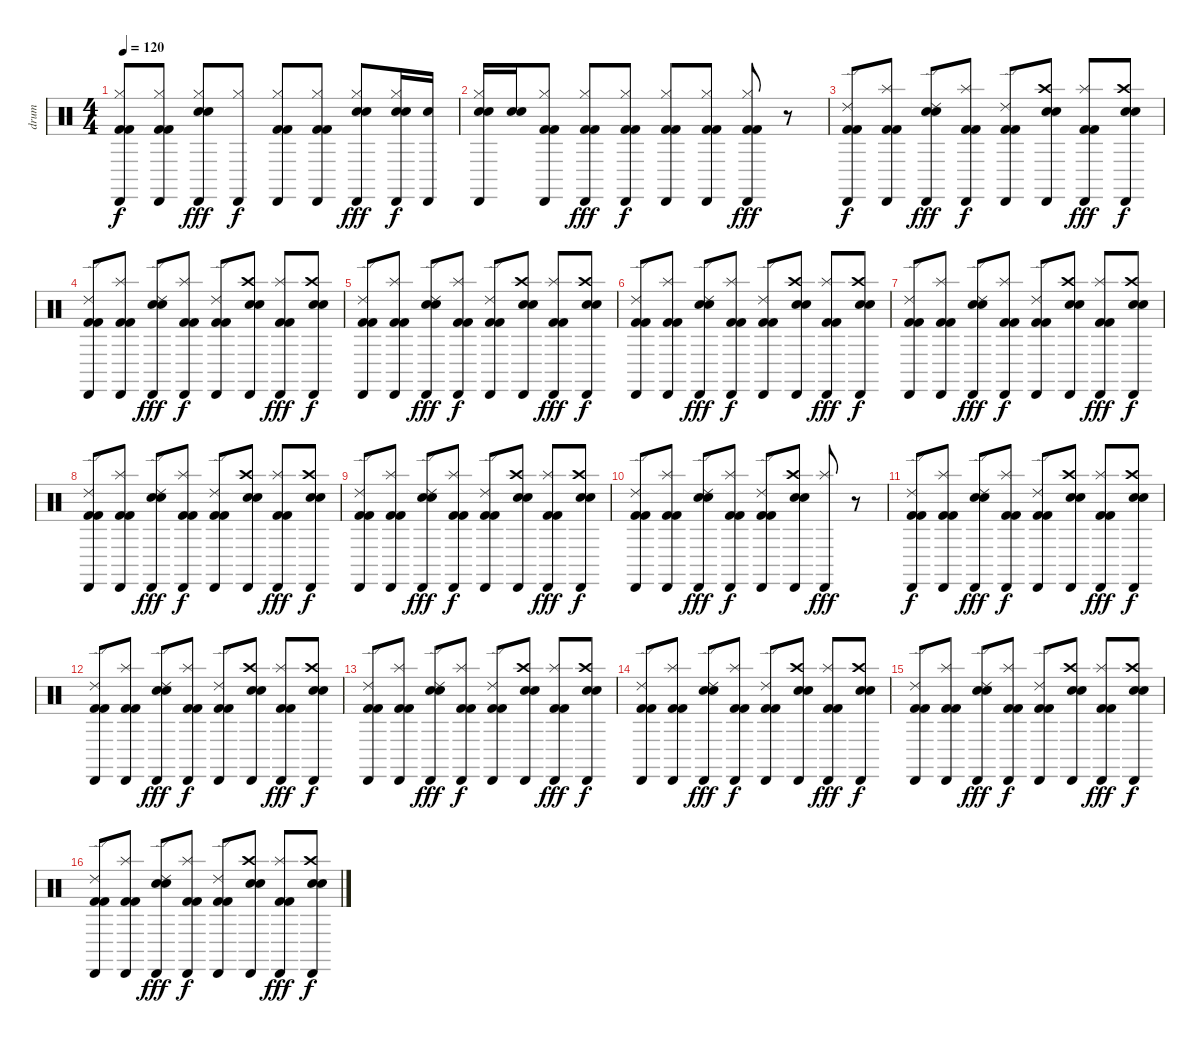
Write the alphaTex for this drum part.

\track ("drum" "drum") {instrument percussion}
\staff {score}
\articulation defaults
\ts (4 4)
\tempo 120
\clef neutral
\ks c
("Cabasa (hit)" "Hi-Hat (closed)" "Kick (hit) 2" "Kick (hit) 2").8{dy f} ("Cabasa (hit)" "Hi-Hat (closed)" "Kick (hit) 2" "Kick (hit) 2").8 ("Cabasa (hit)" "Hi-Hat (closed)" "Snare (hit) 2" "Snare (hit) 2").8{dy fff} ("Cabasa (hit)" "Hi-Hat (closed)").8{dy f} ("Cabasa (hit)" "Hi-Hat (closed)" "Kick (hit) 2" "Kick (hit) 2").8 ("Cabasa (hit)" "Hi-Hat (closed)" "Kick (hit) 2" "Kick (hit) 2").8 ("Cabasa (hit)" "Hi-Hat (closed)" "Snare (hit) 2" "Snare (hit) 2").8{dy fff} ("Cabasa (hit)" "Hi-Hat (closed)" "Snare (hit) 2" "Snare (hit) 2").16{dy f} ("Cabasa (hit)" "Snare (hit) 2").16 |
("Cabasa (hit)" "Hi-Hat (closed)" "Snare (hit) 2" "Snare (hit) 2").16 ("Snare (hit) 2" "Snare (hit) 2").16 ("Cabasa (hit)" "Hi-Hat (closed)" "Kick (hit) 2" "Kick (hit) 2").8 ("Cabasa (hit)" "Hi-Hat (closed)" "Kick (hit) 2" "Kick (hit) 2").8{dy fff} ("Cabasa (hit)" "Hi-Hat (closed)" "Kick (hit) 2" "Kick (hit) 2").8{dy f} ("Cabasa (hit)" "Hi-Hat (closed)" "Kick (hit) 2" "Kick (hit) 2").8 ("Cabasa (hit)" "Hi-Hat (closed)" "Kick (hit) 2" "Kick (hit) 2").8 ("Cabasa (hit)" "Hi-Hat (closed)" "Kick (hit) 2" "Kick (hit) 2").8{dy fff} r.8 |
("Cabasa (hit)" "Ride (edge) 2" "Kick (hit) 2" "Kick (hit) 2").8{dy f} ("Cabasa (hit)" "Splash (hit)" "Kick (hit) 2" "Kick (hit) 2").8 ("Cabasa (hit)" "Ride (edge) 2" "Snare (hit) 2" "Snare (hit) 2").8{dy fff} ("Cabasa (hit)" "Splash (hit)" "Kick (hit) 2" "Kick (hit) 2").8{dy f} ("Cabasa (hit)" "Ride (edge) 2" "Kick (hit) 2" "Kick (hit) 2").8 ("Cabasa (hit)" "Crash high (hit)" "Snare (hit) 2" "Snare (hit) 2").8 ("Cabasa (hit)" "Splash (hit)" "Kick (hit) 2" "Kick (hit) 2").8{dy fff} ("Cabasa (hit)" "Crash high (hit)" "Snare (hit) 2" "Snare (hit) 2").8{dy f} |
("Cabasa (hit)" "Ride (edge) 2" "Kick (hit) 2" "Kick (hit) 2").8 ("Cabasa (hit)" "Splash (hit)" "Kick (hit) 2" "Kick (hit) 2").8 ("Cabasa (hit)" "Ride (edge) 2" "Snare (hit) 2" "Snare (hit) 2").8{dy fff} ("Cabasa (hit)" "Splash (hit)" "Kick (hit) 2" "Kick (hit) 2").8{dy f} ("Cabasa (hit)" "Ride (edge) 2" "Kick (hit) 2" "Kick (hit) 2").8 ("Cabasa (hit)" "Crash high (hit)" "Snare (hit) 2" "Snare (hit) 2").8 ("Cabasa (hit)" "Splash (hit)" "Kick (hit) 2" "Kick (hit) 2").8{dy fff} ("Cabasa (hit)" "Crash high (hit)" "Snare (hit) 2" "Snare (hit) 2").8{dy f} |
("Cabasa (hit)" "Ride (edge) 2" "Kick (hit) 2" "Kick (hit) 2").8 ("Cabasa (hit)" "Splash (hit)" "Kick (hit) 2" "Kick (hit) 2").8 ("Cabasa (hit)" "Ride (edge) 2" "Snare (hit) 2" "Snare (hit) 2").8{dy fff} ("Cabasa (hit)" "Splash (hit)" "Kick (hit) 2" "Kick (hit) 2").8{dy f} ("Cabasa (hit)" "Ride (edge) 2" "Kick (hit) 2" "Kick (hit) 2").8 ("Cabasa (hit)" "Crash high (hit)" "Snare (hit) 2" "Snare (hit) 2").8 ("Cabasa (hit)" "Splash (hit)" "Kick (hit) 2" "Kick (hit) 2").8{dy fff} ("Cabasa (hit)" "Crash high (hit)" "Snare (hit) 2" "Snare (hit) 2").8{dy f} |
("Cabasa (hit)" "Ride (edge) 2" "Kick (hit) 2" "Kick (hit) 2").8 ("Cabasa (hit)" "Splash (hit)" "Kick (hit) 2" "Kick (hit) 2").8 ("Cabasa (hit)" "Ride (edge) 2" "Snare (hit) 2" "Snare (hit) 2").8{dy fff} ("Cabasa (hit)" "Splash (hit)" "Kick (hit) 2" "Kick (hit) 2").8{dy f} ("Cabasa (hit)" "Ride (edge) 2" "Kick (hit) 2" "Kick (hit) 2").8 ("Cabasa (hit)" "Crash high (hit)" "Snare (hit) 2" "Snare (hit) 2").8 ("Cabasa (hit)" "Splash (hit)" "Kick (hit) 2" "Kick (hit) 2").8{dy fff} ("Cabasa (hit)" "Crash high (hit)" "Snare (hit) 2" "Snare (hit) 2").8{dy f} |
("Cabasa (hit)" "Ride (edge) 2" "Kick (hit) 2" "Kick (hit) 2").8 ("Cabasa (hit)" "Splash (hit)" "Kick (hit) 2" "Kick (hit) 2").8 ("Cabasa (hit)" "Ride (edge) 2" "Snare (hit) 2" "Snare (hit) 2").8{dy fff} ("Cabasa (hit)" "Splash (hit)" "Kick (hit) 2" "Kick (hit) 2").8{dy f} ("Cabasa (hit)" "Ride (edge) 2" "Kick (hit) 2" "Kick (hit) 2").8 ("Cabasa (hit)" "Crash high (hit)" "Snare (hit) 2" "Snare (hit) 2").8 ("Cabasa (hit)" "Splash (hit)" "Kick (hit) 2" "Kick (hit) 2").8{dy fff} ("Cabasa (hit)" "Crash high (hit)" "Snare (hit) 2" "Snare (hit) 2").8{dy f} |
("Cabasa (hit)" "Ride (edge) 2" "Kick (hit) 2" "Kick (hit) 2").8 ("Cabasa (hit)" "Splash (hit)" "Kick (hit) 2" "Kick (hit) 2").8 ("Cabasa (hit)" "Ride (edge) 2" "Snare (hit) 2" "Snare (hit) 2").8{dy fff} ("Cabasa (hit)" "Splash (hit)" "Kick (hit) 2" "Kick (hit) 2").8{dy f} ("Cabasa (hit)" "Ride (edge) 2" "Kick (hit) 2" "Kick (hit) 2").8 ("Cabasa (hit)" "Crash high (hit)" "Snare (hit) 2" "Snare (hit) 2").8 ("Cabasa (hit)" "Splash (hit)" "Kick (hit) 2" "Kick (hit) 2").8{dy fff} ("Cabasa (hit)" "Crash high (hit)" "Snare (hit) 2" "Snare (hit) 2").8{dy f} |
("Cabasa (hit)" "Ride (edge) 2" "Kick (hit) 2" "Kick (hit) 2").8 ("Cabasa (hit)" "Splash (hit)" "Kick (hit) 2" "Kick (hit) 2").8 ("Cabasa (hit)" "Ride (edge) 2" "Snare (hit) 2" "Snare (hit) 2").8{dy fff} ("Cabasa (hit)" "Splash (hit)" "Kick (hit) 2" "Kick (hit) 2").8{dy f} ("Cabasa (hit)" "Ride (edge) 2" "Kick (hit) 2" "Kick (hit) 2").8 ("Cabasa (hit)" "Crash high (hit)" "Snare (hit) 2" "Snare (hit) 2").8 ("Cabasa (hit)" "Splash (hit)" "Kick (hit) 2" "Kick (hit) 2").8{dy fff} ("Cabasa (hit)" "Crash high (hit)" "Snare (hit) 2" "Snare (hit) 2").8{dy f} |
("Cabasa (hit)" "Ride (edge) 2" "Kick (hit) 2" "Kick (hit) 2").8 ("Cabasa (hit)" "Splash (hit)" "Kick (hit) 2" "Kick (hit) 2").8 ("Cabasa (hit)" "Ride (edge) 2" "Snare (hit) 2" "Snare (hit) 2").8{dy fff} ("Cabasa (hit)" "Splash (hit)" "Kick (hit) 2" "Kick (hit) 2").8{dy f} ("Cabasa (hit)" "Ride (edge) 2" "Kick (hit) 2" "Kick (hit) 2").8 ("Cabasa (hit)" "Crash high (hit)" "Snare (hit) 2" "Snare (hit) 2").8 ("Cabasa (hit)" "Splash (hit)").8{dy fff} r.8 |
("Cabasa (hit)" "Ride (edge) 2" "Kick (hit) 2" "Kick (hit) 2").8{dy f} ("Cabasa (hit)" "Splash (hit)" "Kick (hit) 2" "Kick (hit) 2").8 ("Cabasa (hit)" "Ride (edge) 2" "Snare (hit) 2" "Snare (hit) 2").8{dy fff} ("Cabasa (hit)" "Splash (hit)" "Kick (hit) 2" "Kick (hit) 2").8{dy f} ("Cabasa (hit)" "Ride (edge) 2" "Kick (hit) 2" "Kick (hit) 2").8 ("Cabasa (hit)" "Crash high (hit)" "Snare (hit) 2" "Snare (hit) 2").8 ("Cabasa (hit)" "Splash (hit)" "Kick (hit) 2" "Kick (hit) 2").8{dy fff} ("Cabasa (hit)" "Crash high (hit)" "Snare (hit) 2" "Snare (hit) 2").8{dy f} |
("Cabasa (hit)" "Ride (edge) 2" "Kick (hit) 2" "Kick (hit) 2").8 ("Cabasa (hit)" "Splash (hit)" "Kick (hit) 2" "Kick (hit) 2").8 ("Cabasa (hit)" "Ride (edge) 2" "Snare (hit) 2" "Snare (hit) 2").8{dy fff} ("Cabasa (hit)" "Splash (hit)" "Kick (hit) 2" "Kick (hit) 2").8{dy f} ("Cabasa (hit)" "Ride (edge) 2" "Kick (hit) 2" "Kick (hit) 2").8 ("Cabasa (hit)" "Crash high (hit)" "Snare (hit) 2" "Snare (hit) 2").8 ("Cabasa (hit)" "Splash (hit)" "Kick (hit) 2" "Kick (hit) 2").8{dy fff} ("Cabasa (hit)" "Crash high (hit)" "Snare (hit) 2" "Snare (hit) 2").8{dy f} |
("Cabasa (hit)" "Ride (edge) 2" "Kick (hit) 2" "Kick (hit) 2").8 ("Cabasa (hit)" "Splash (hit)" "Kick (hit) 2" "Kick (hit) 2").8 ("Cabasa (hit)" "Ride (edge) 2" "Snare (hit) 2" "Snare (hit) 2").8{dy fff} ("Cabasa (hit)" "Splash (hit)" "Kick (hit) 2" "Kick (hit) 2").8{dy f} ("Cabasa (hit)" "Ride (edge) 2" "Kick (hit) 2" "Kick (hit) 2").8 ("Cabasa (hit)" "Crash high (hit)" "Snare (hit) 2" "Snare (hit) 2").8 ("Cabasa (hit)" "Splash (hit)" "Kick (hit) 2" "Kick (hit) 2").8{dy fff} ("Cabasa (hit)" "Crash high (hit)" "Snare (hit) 2" "Snare (hit) 2").8{dy f} |
("Cabasa (hit)" "Ride (edge) 2" "Kick (hit) 2" "Kick (hit) 2").8 ("Cabasa (hit)" "Splash (hit)" "Kick (hit) 2" "Kick (hit) 2").8 ("Cabasa (hit)" "Ride (edge) 2" "Snare (hit) 2" "Snare (hit) 2").8{dy fff} ("Cabasa (hit)" "Splash (hit)" "Kick (hit) 2" "Kick (hit) 2").8{dy f} ("Cabasa (hit)" "Ride (edge) 2" "Kick (hit) 2" "Kick (hit) 2").8 ("Cabasa (hit)" "Crash high (hit)" "Snare (hit) 2" "Snare (hit) 2").8 ("Cabasa (hit)" "Splash (hit)" "Kick (hit) 2" "Kick (hit) 2").8{dy fff} ("Cabasa (hit)" "Crash high (hit)" "Snare (hit) 2" "Snare (hit) 2").8{dy f} |
("Cabasa (hit)" "Ride (edge) 2" "Kick (hit) 2" "Kick (hit) 2").8 ("Cabasa (hit)" "Splash (hit)" "Kick (hit) 2" "Kick (hit) 2").8 ("Cabasa (hit)" "Ride (edge) 2" "Snare (hit) 2" "Snare (hit) 2").8{dy fff} ("Cabasa (hit)" "Splash (hit)" "Kick (hit) 2" "Kick (hit) 2").8{dy f} ("Cabasa (hit)" "Ride (edge) 2" "Kick (hit) 2" "Kick (hit) 2").8 ("Cabasa (hit)" "Crash high (hit)" "Snare (hit) 2" "Snare (hit) 2").8 ("Cabasa (hit)" "Splash (hit)" "Kick (hit) 2" "Kick (hit) 2").8{dy fff} ("Cabasa (hit)" "Crash high (hit)" "Snare (hit) 2" "Snare (hit) 2").8{dy f} |
("Cabasa (hit)" "Ride (edge) 2" "Kick (hit) 2" "Kick (hit) 2").8 ("Cabasa (hit)" "Splash (hit)" "Kick (hit) 2" "Kick (hit) 2").8 ("Cabasa (hit)" "Ride (edge) 2" "Snare (hit) 2" "Snare (hit) 2").8{dy fff} ("Cabasa (hit)" "Splash (hit)" "Kick (hit) 2" "Kick (hit) 2").8{dy f} ("Cabasa (hit)" "Ride (edge) 2" "Kick (hit) 2" "Kick (hit) 2").8 ("Cabasa (hit)" "Crash high (hit)" "Snare (hit) 2" "Snare (hit) 2").8 ("Cabasa (hit)" "Splash (hit)" "Kick (hit) 2" "Kick (hit) 2").8{dy fff} ("Cabasa (hit)" "Crash high (hit)" "Snare (hit) 2" "Snare (hit) 2").8{dy f}
